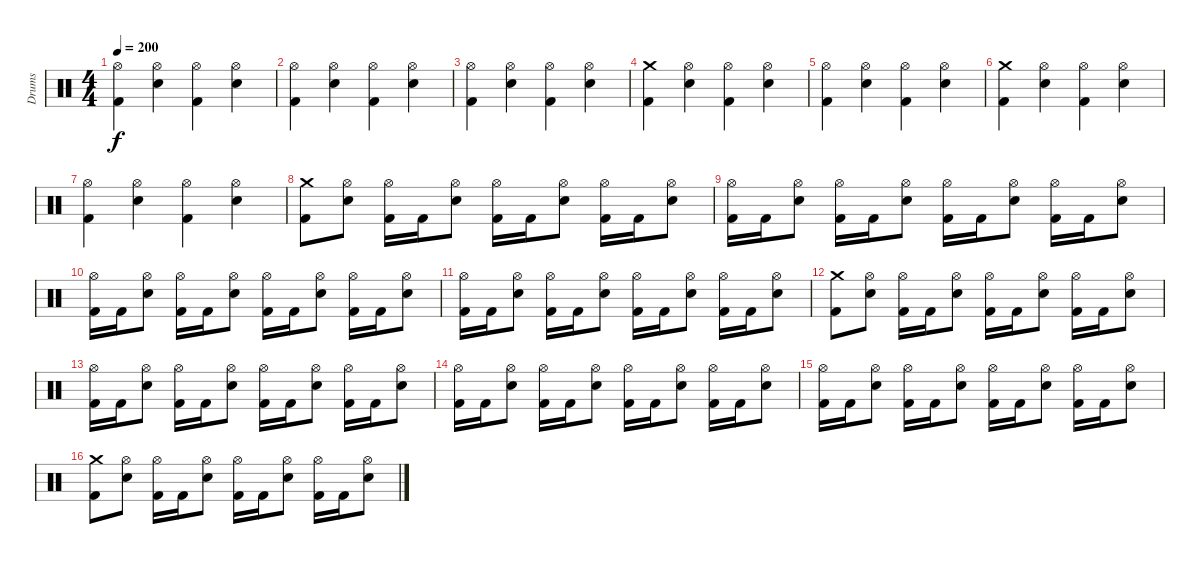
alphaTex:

\track ("Drums" "Drums") {instrument percussion}
\staff {score}
\articulation defaults
\ts (4 4)
\tempo 200
\clef neutral
\ks c
("Hi-Hat (open)" "Kick (hit) 2").4{dy f} ("Hi-Hat (open)" "Electric Snare (hit)").4 ("Hi-Hat (open)" "Kick (hit) 2").4 ("Hi-Hat (open)" "Electric Snare (hit)").4 |
("Hi-Hat (open)" "Kick (hit) 2").4 ("Hi-Hat (open)" "Electric Snare (hit)").4 ("Hi-Hat (open)" "Kick (hit) 2").4 ("Hi-Hat (open)" "Electric Snare (hit)").4 |
("Hi-Hat (open)" "Kick (hit) 2").4 ("Hi-Hat (open)" "Electric Snare (hit)").4 ("Hi-Hat (open)" "Kick (hit) 2").4 ("Hi-Hat (open)" "Electric Snare (hit)").4 |
("Crash medium (hit)" "Kick (hit) 2").4 ("Hi-Hat (open)" "Electric Snare (hit)").4 ("Hi-Hat (open)" "Kick (hit) 2").4 ("Hi-Hat (open)" "Electric Snare (hit)").4 |
("Hi-Hat (open)" "Kick (hit) 2").4 ("Hi-Hat (open)" "Electric Snare (hit)").4 ("Hi-Hat (open)" "Kick (hit) 2").4 ("Hi-Hat (open)" "Electric Snare (hit)").4 |
("Crash medium (hit)" "Kick (hit) 2").4 ("Hi-Hat (open)" "Electric Snare (hit)").4 ("Hi-Hat (open)" "Kick (hit) 2").4 ("Hi-Hat (open)" "Electric Snare (hit)").4 |
("Hi-Hat (open)" "Kick (hit) 2").4 ("Hi-Hat (open)" "Electric Snare (hit)").4 ("Hi-Hat (open)" "Kick (hit) 2").4 ("Hi-Hat (open)" "Electric Snare (hit)").4 |
("Crash medium (hit)" "Kick (hit) 2").8 ("Hi-Hat (open)" "Electric Snare (hit)").8 ("Hi-Hat (open)" "Kick (hit) 2").16 "Kick (hit) 2".16 ("Hi-Hat (open)" "Electric Snare (hit)").8 ("Hi-Hat (open)" "Kick (hit) 2").16 "Kick (hit) 2".16 ("Hi-Hat (open)" "Electric Snare (hit)").8 ("Hi-Hat (open)" "Kick (hit) 2").16 "Kick (hit) 2".16 ("Hi-Hat (open)" "Electric Snare (hit)").8 |
("Hi-Hat (open)" "Kick (hit) 2").16 "Kick (hit) 2".16 ("Hi-Hat (open)" "Electric Snare (hit)").8 ("Hi-Hat (open)" "Kick (hit) 2").16 "Kick (hit) 2".16 ("Hi-Hat (open)" "Electric Snare (hit)").8 ("Hi-Hat (open)" "Kick (hit) 2").16 "Kick (hit) 2".16 ("Hi-Hat (open)" "Electric Snare (hit)").8 ("Hi-Hat (open)" "Kick (hit) 2").16 "Kick (hit) 2".16 ("Hi-Hat (open)" "Electric Snare (hit)").8 |
("Hi-Hat (open)" "Kick (hit) 2").16 "Kick (hit) 2".16 ("Hi-Hat (open)" "Electric Snare (hit)").8 ("Hi-Hat (open)" "Kick (hit) 2").16 "Kick (hit) 2".16 ("Hi-Hat (open)" "Electric Snare (hit)").8 ("Hi-Hat (open)" "Kick (hit) 2").16 "Kick (hit) 2".16 ("Hi-Hat (open)" "Electric Snare (hit)").8 ("Hi-Hat (open)" "Kick (hit) 2").16 "Kick (hit) 2".16 ("Hi-Hat (open)" "Electric Snare (hit)").8 |
("Hi-Hat (open)" "Kick (hit) 2").16 "Kick (hit) 2".16 ("Hi-Hat (open)" "Electric Snare (hit)").8 ("Hi-Hat (open)" "Kick (hit) 2").16 "Kick (hit) 2".16 ("Hi-Hat (open)" "Electric Snare (hit)").8 ("Hi-Hat (open)" "Kick (hit) 2").16 "Kick (hit) 2".16 ("Hi-Hat (open)" "Electric Snare (hit)").8 ("Hi-Hat (open)" "Kick (hit) 2").16 "Kick (hit) 2".16 ("Hi-Hat (open)" "Electric Snare (hit)").8 |
("Crash medium (hit)" "Kick (hit) 2").8 ("Hi-Hat (open)" "Electric Snare (hit)").8 ("Hi-Hat (open)" "Kick (hit) 2").16 "Kick (hit) 2".16 ("Hi-Hat (open)" "Electric Snare (hit)").8 ("Hi-Hat (open)" "Kick (hit) 2").16 "Kick (hit) 2".16 ("Hi-Hat (open)" "Electric Snare (hit)").8 ("Hi-Hat (open)" "Kick (hit) 2").16 "Kick (hit) 2".16 ("Hi-Hat (open)" "Electric Snare (hit)").8 |
("Hi-Hat (open)" "Kick (hit) 2").16 "Kick (hit) 2".16 ("Hi-Hat (open)" "Electric Snare (hit)").8 ("Hi-Hat (open)" "Kick (hit) 2").16 "Kick (hit) 2".16 ("Hi-Hat (open)" "Electric Snare (hit)").8 ("Hi-Hat (open)" "Kick (hit) 2").16 "Kick (hit) 2".16 ("Hi-Hat (open)" "Electric Snare (hit)").8 ("Hi-Hat (open)" "Kick (hit) 2").16 "Kick (hit) 2".16 ("Hi-Hat (open)" "Electric Snare (hit)").8 |
("Hi-Hat (open)" "Kick (hit) 2").16 "Kick (hit) 2".16 ("Hi-Hat (open)" "Electric Snare (hit)").8 ("Hi-Hat (open)" "Kick (hit) 2").16 "Kick (hit) 2".16 ("Hi-Hat (open)" "Electric Snare (hit)").8 ("Hi-Hat (open)" "Kick (hit) 2").16 "Kick (hit) 2".16 ("Hi-Hat (open)" "Electric Snare (hit)").8 ("Hi-Hat (open)" "Kick (hit) 2").16 "Kick (hit) 2".16 ("Hi-Hat (open)" "Electric Snare (hit)").8 |
("Hi-Hat (open)" "Kick (hit) 2").16 "Kick (hit) 2".16 ("Hi-Hat (open)" "Electric Snare (hit)").8 ("Hi-Hat (open)" "Kick (hit) 2").16 "Kick (hit) 2".16 ("Hi-Hat (open)" "Electric Snare (hit)").8 ("Hi-Hat (open)" "Kick (hit) 2").16 "Kick (hit) 2".16 ("Hi-Hat (open)" "Electric Snare (hit)").8 ("Hi-Hat (open)" "Kick (hit) 2").16 "Kick (hit) 2".16 ("Hi-Hat (open)" "Electric Snare (hit)").8 |
("Crash medium (hit)" "Kick (hit) 2").8 ("Hi-Hat (open)" "Electric Snare (hit)").8 ("Hi-Hat (open)" "Kick (hit) 2").16 "Kick (hit) 2".16 ("Hi-Hat (open)" "Electric Snare (hit)").8 ("Hi-Hat (open)" "Kick (hit) 2").16 "Kick (hit) 2".16 ("Hi-Hat (open)" "Electric Snare (hit)").8 ("Hi-Hat (open)" "Kick (hit) 2").16 "Kick (hit) 2".16 ("Hi-Hat (open)" "Electric Snare (hit)").8
